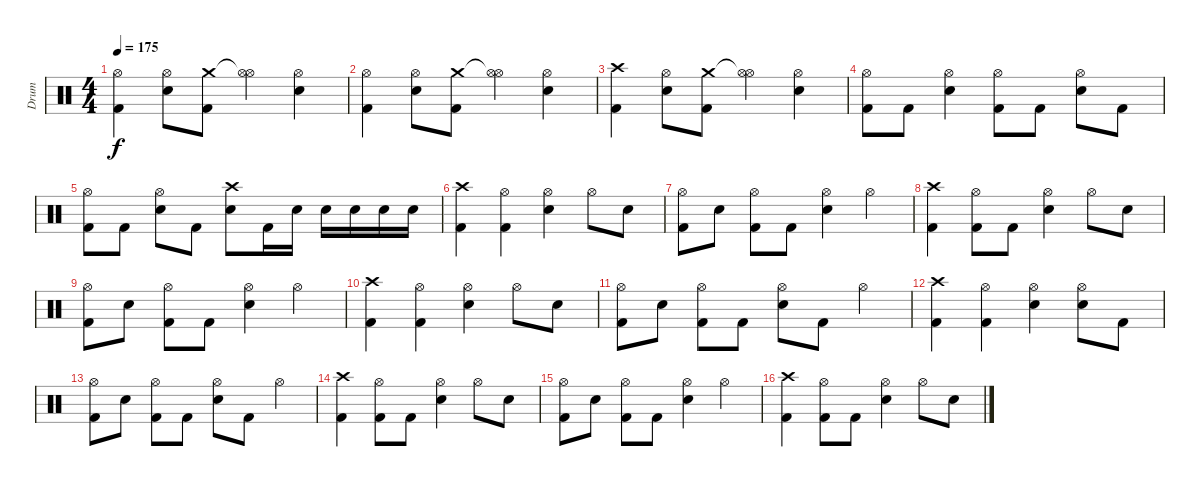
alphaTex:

\track ("Drum" "Drum") {instrument percussion}
\staff {score}
\articulation defaults
\ts (4 4)
\tempo 175
\clef neutral
\ks c
("Hi-Hat (open)" "Kick (hit) 2").4{dy f} ("Hi-Hat (open)" "Electric Snare (hit)").8 ("Crash medium (hit)" "Kick (hit) 2").8 ("Hi-Hat (open)"{t} "Hi-Hat (open)").4 ("Hi-Hat (open)" "Electric Snare (hit)").4 |
("Hi-Hat (open)" "Kick (hit) 2").4 ("Hi-Hat (open)" "Electric Snare (hit)").8 ("Crash medium (hit)" "Kick (hit) 2").8 ("Hi-Hat (open)"{t} "Hi-Hat (open)").4 ("Hi-Hat (open)" "Electric Snare (hit)").4 |
("Crash high (hit)" "Kick (hit) 2").4 ("Hi-Hat (open)" "Electric Snare (hit)").8 ("Crash medium (hit)" "Kick (hit) 2").8 ("Hi-Hat (open)"{t} "Hi-Hat (open)").4 ("Hi-Hat (open)" "Electric Snare (hit)").4 |
("Hi-Hat (open)" "Kick (hit) 2").8 "Kick (hit) 2".8 ("Hi-Hat (open)" "Electric Snare (hit)").4 ("Hi-Hat (open)" "Kick (hit) 2").8 "Kick (hit) 2".8 ("Hi-Hat (open)" "Electric Snare (hit)").8 "Kick (hit) 2".8 |
("Hi-Hat (open)" "Kick (hit) 2").8 "Kick (hit) 2".8 ("Hi-Hat (open)" "Electric Snare (hit)").8 "Kick (hit) 2".8 ("Crash high (hit)" "Electric Snare (hit)").8 "Kick (hit) 2".16 "Electric Snare (hit)".16 "Electric Snare (hit)".16 "Electric Snare (hit)".16 "Electric Snare (hit)".16 "Electric Snare (hit)".16 |
("Crash high (hit)" "Kick (hit) 2").4 ("Hi-Hat (open)" "Kick (hit) 2").4 ("Hi-Hat (open)" "Electric Snare (hit)").4 "Hi-Hat (open)".8 "Electric Snare (hit)".8 |
("Hi-Hat (open)" "Kick (hit) 2").8 "Electric Snare (hit)".8 ("Hi-Hat (open)" "Kick (hit) 2").8 "Kick (hit) 2".8 ("Hi-Hat (open)" "Electric Snare (hit)").4 "Hi-Hat (open)".4 |
("Crash high (hit)" "Kick (hit) 2").4 ("Hi-Hat (open)" "Kick (hit) 2").8 "Kick (hit) 2".8 ("Hi-Hat (open)" "Electric Snare (hit)").4 "Hi-Hat (open)".8 "Electric Snare (hit)".8 |
("Hi-Hat (open)" "Kick (hit) 2").8 "Electric Snare (hit)".8 ("Hi-Hat (open)" "Kick (hit) 2").8 "Kick (hit) 2".8 ("Hi-Hat (open)" "Electric Snare (hit)").4 "Hi-Hat (open)".4 |
("Crash high (hit)" "Kick (hit) 2").4 ("Hi-Hat (open)" "Kick (hit) 2").4 ("Hi-Hat (open)" "Electric Snare (hit)").4 "Hi-Hat (open)".8 "Electric Snare (hit)".8 |
("Hi-Hat (open)" "Kick (hit) 2").8 "Electric Snare (hit)".8 ("Hi-Hat (open)" "Kick (hit) 2").8 "Kick (hit) 2".8 ("Hi-Hat (open)" "Electric Snare (hit)").8 "Kick (hit) 2".8 "Hi-Hat (open)".4 |
("Crash high (hit)" "Kick (hit) 2").4 ("Hi-Hat (open)" "Kick (hit) 2").4 ("Hi-Hat (open)" "Electric Snare (hit)").4 ("Hi-Hat (open)" "Electric Snare (hit)").8 "Kick (hit) 2".8 |
("Hi-Hat (open)" "Kick (hit) 2").8 "Electric Snare (hit)".8 ("Hi-Hat (open)" "Kick (hit) 2").8 "Kick (hit) 2".8 ("Hi-Hat (open)" "Electric Snare (hit)").8 "Kick (hit) 2".8 "Hi-Hat (open)".4 |
("Crash high (hit)" "Kick (hit) 2").4 ("Hi-Hat (open)" "Kick (hit) 2").8 "Kick (hit) 2".8 ("Hi-Hat (open)" "Electric Snare (hit)").4 "Hi-Hat (open)".8 "Electric Snare (hit)".8 |
("Hi-Hat (open)" "Kick (hit) 2").8 "Electric Snare (hit)".8 ("Hi-Hat (open)" "Kick (hit) 2").8 "Kick (hit) 2".8 ("Hi-Hat (open)" "Electric Snare (hit)").4 "Hi-Hat (open)".4 |
("Crash high (hit)" "Kick (hit) 2").4 ("Hi-Hat (open)" "Kick (hit) 2").8 "Kick (hit) 2".8 ("Hi-Hat (open)" "Electric Snare (hit)").4 "Hi-Hat (open)".8 "Electric Snare (hit)".8
